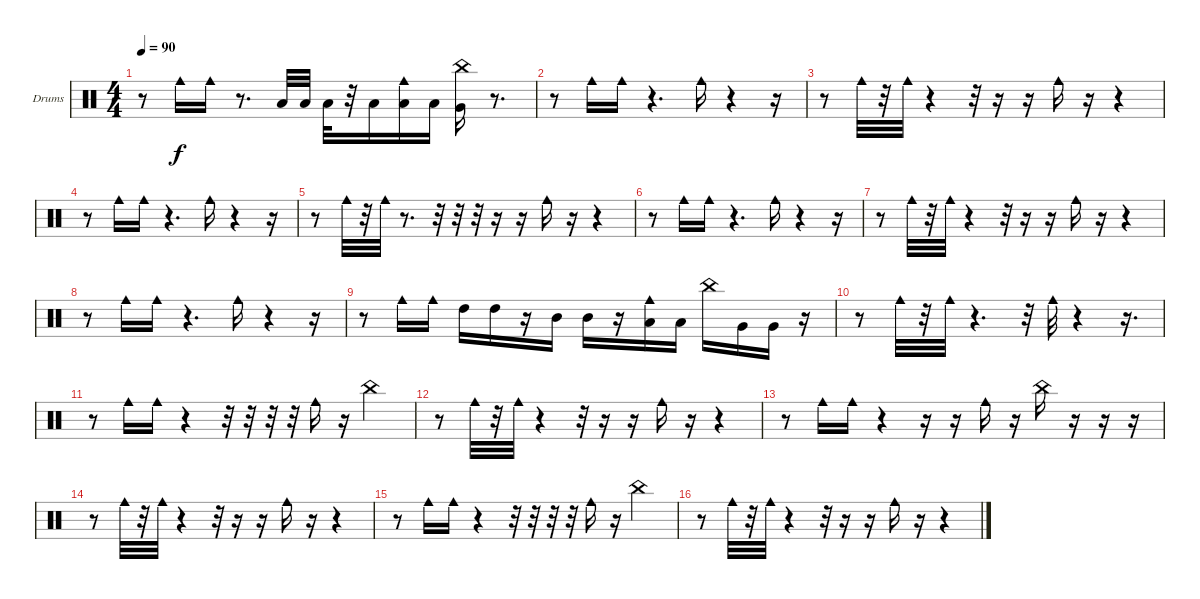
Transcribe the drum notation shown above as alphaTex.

\defaultSystemsLayout 4
\bracketExtendMode groupsimilarinstruments
\firstSystemTrackNameOrientation horizontal
\otherSystemsTrackNameOrientation horizontal
\track ("Drumkit" "Drums") {instrument percussion}
\staff {score}
\articulation defaults
\ts (4 4)
\tempo 90
\clef neutral
\scale
0.333333
\ks c
r.8{dy f} "Cowbell medium (hit)".16 "Cowbell medium (hit)".16 r.8{d} "Low Tom (hit)".32 "Low Tom (hit)".32 "Low Tom (hit)".32 r.32 "Low Tom (hit)".16 ("Low Tom (hit)" "Cowbell medium (hit)").16 "Low Tom (hit)".16 ("Very Low Tom (hit)" "China (hit)").16 r.8{d} |
\scale
0.333333 r.8 "Cowbell medium (hit)".16 "Cowbell medium (hit)".16 r.4{d} "Cowbell medium (hit)".16 r.4 r.16 |
\scale
0.333333 r.8 "Cowbell medium (hit)".32 r.32 "Cowbell medium (hit)".32 r.4 r.32 r.16 r.16 "Cowbell medium (hit)".16 r.16 r.4 |
\scale
0.333333 r.8 "Cowbell medium (hit)".16 "Cowbell medium (hit)".16 r.4{d} "Cowbell medium (hit)".16 r.4 r.16 |
\scale
0.333333 r.8 "Cowbell medium (hit)".32 r.32 "Cowbell medium (hit)".32 r.8{d} r.32 r.32 r.32 r.16 r.16 "Cowbell medium (hit)".16 r.16 r.4 |
\scale
0.333333 r.8 "Cowbell medium (hit)".16 "Cowbell medium (hit)".16 r.4{d} "Cowbell medium (hit)".16 r.4 r.16 |
\scale
0.333333 r.8 "Cowbell medium (hit)".32 r.32 "Cowbell medium (hit)".32 r.4 r.32 r.16 r.16 "Cowbell medium (hit)".16 r.16 r.4 |
\scale
0.333333 r.8 "Cowbell medium (hit)".16 "Cowbell medium (hit)".16 r.4{d} "Cowbell medium (hit)".16 r.4 r.16 |
\scale
0.333333 r.8 "Cowbell medium (hit)".16 "Cowbell medium (hit)".16 "High Tom (hit)".16 "High Tom (hit)".16 r.16 "Mid Tom (hit)".16 "Mid Tom (hit)".16 r.16 ("Low Tom (hit)" "Cowbell medium (hit)").16 "Low Tom (hit)".16 "China (hit)".16 "Very Low Tom (hit)".16 "Very Low Tom (hit)".16 r.16 |
\scale
0.333333 r.8 "Cowbell medium (hit)".32 r.32 "Cowbell medium (hit)".32 r.4{d} r.32 "Cowbell medium (hit)".32 r.4 r.16{d} |
\scale
0.333333 r.8 "Cowbell medium (hit)".16 "Cowbell medium (hit)".16 r.4 r.32 r.32 r.32 r.32 "Cowbell medium (hit)".16 r.16 "China (hit)".4 |
\scale
0.333333 r.8 "Cowbell medium (hit)".32 r.32 "Cowbell medium (hit)".32 r.4 r.32 r.16 r.16 "Cowbell medium (hit)".16 r.16 r.4 |
\scale
0.333333 r.8 "Cowbell medium (hit)".16 "Cowbell medium (hit)".16 r.4 r.16 r.16 "Cowbell medium (hit)".16 r.16 "China (hit)".16 r.16 r.16 r.16 |
\scale
0.333333 r.8 "Cowbell medium (hit)".32 r.32 "Cowbell medium (hit)".32 r.4 r.32 r.16 r.16 "Cowbell medium (hit)".16 r.16 r.4 |
\scale
0.333333 r.8 "Cowbell medium (hit)".16 "Cowbell medium (hit)".16 r.4 r.32 r.32 r.32 r.32 "Cowbell medium (hit)".16 r.16 "China (hit)".4 |
\scale
0.333333 r.8 "Cowbell medium (hit)".32 r.32 "Cowbell medium (hit)".32 r.4 r.32 r.16 r.16 "Cowbell medium (hit)".16 r.16 r.4
